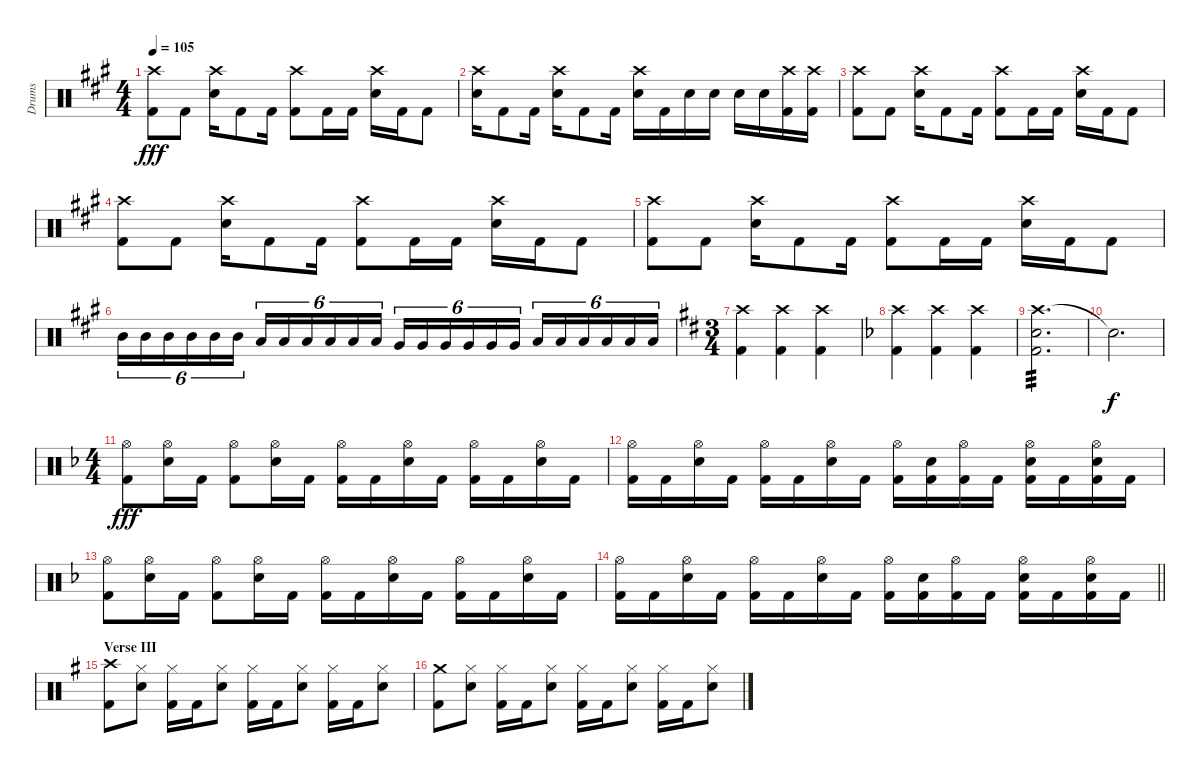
\track ("Drums" "Drums") {instrument percussion}
\staff {score}
\articulation defaults
\ts (4 4)
\tempo 105
\clef neutral
\ks f#minor
("Crash high (hit)" "Kick (hit) 2").8{dy fff} "Kick (hit) 2".8 ("Crash high (hit)" "Snare (hit) 2").16 "Kick (hit) 2".8 "Kick (hit) 2".16 ("Crash high (hit)" "Kick (hit) 2").8 "Kick (hit) 2".16 "Kick (hit) 2".16 ("Crash high (hit)" "Snare (hit) 2").16 "Kick (hit) 2".16 "Kick (hit) 2".8 |
("Crash high (hit)" "Snare (hit) 2").16 "Kick (hit) 2".8 "Kick (hit) 2".16 ("Crash high (hit)" "Snare (hit) 2").16 "Kick (hit) 2".8 "Kick (hit) 2".16 ("Crash high (hit)" "Snare (hit) 2").16 "Kick (hit) 2".16 "Snare (hit) 2".16 "Snare (hit) 2".16 "Snare (hit) 2".16 "Snare (hit) 2".16 ("Crash high (hit)" "Kick (hit) 2").16 ("Crash high (hit)" "Kick (hit) 2").16 |
("Crash high (hit)" "Kick (hit) 2").8 "Kick (hit) 2".8 ("Crash high (hit)" "Snare (hit) 2").16 "Kick (hit) 2".8 "Kick (hit) 2".16 ("Crash high (hit)" "Kick (hit) 2").8 "Kick (hit) 2".16 "Kick (hit) 2".16 ("Crash high (hit)" "Snare (hit) 2").16 "Kick (hit) 2".16 "Kick (hit) 2".8 |
("Crash high (hit)" "Kick (hit) 2").8 "Kick (hit) 2".8 ("Crash high (hit)" "Snare (hit) 2").16 "Kick (hit) 2".8 "Kick (hit) 2".16 ("Crash high (hit)" "Kick (hit) 2").8 "Kick (hit) 2".16 "Kick (hit) 2".16 ("Crash high (hit)" "Snare (hit) 2").16 "Kick (hit) 2".16 "Kick (hit) 2".8 |
("Crash high (hit)" "Kick (hit) 2").8 "Kick (hit) 2".8 ("Crash high (hit)" "Snare (hit) 2").16 "Kick (hit) 2".8 "Kick (hit) 2".16 ("Crash high (hit)" "Kick (hit) 2").8 "Kick (hit) 2".16 "Kick (hit) 2".16 ("Crash high (hit)" "Snare (hit) 2").16 "Kick (hit) 2".16 "Kick (hit) 2".8 |
"Mid Tom (hit)".16{tu (6 4)} "Mid Tom (hit)".16{tu (6 4)} "Mid Tom (hit)".16{tu (6 4)} "Mid Tom (hit)".16{tu (6 4)} "Mid Tom (hit)".16{tu (6 4)} "Mid Tom (hit)".16{tu (6 4)} "Low Tom (hit)".16{tu (6 4)} "Low Tom (hit)".16{tu (6 4)} "Low Tom (hit)".16{tu (6 4)} "Low Tom (hit)".16{tu (6 4)} "Low Tom (hit)".16{tu (6 4)} "Low Tom (hit)".16{tu (6 4)} "Very Low Tom (hit)".16{tu (6 4)} "Very Low Tom (hit)".16{tu (6 4)} "Very Low Tom (hit)".16{tu (6 4)} "Very Low Tom (hit)".16{tu (6 4)} "Very Low Tom (hit)".16{tu (6 4)} "Very Low Tom (hit)".16{tu (6 4)} "Low Floor Tom (hit)".16{tu (6 4)} "Low Floor Tom (hit)".16{tu (6 4)} "Low Floor Tom (hit)".16{tu (6 4)} "Low Floor Tom (hit)".16{tu (6 4)} "Low Floor Tom (hit)".16{tu (6 4)} "Low Floor Tom (hit)".16{tu (6 4)} |
\ts (3 4)
\ks d
("Crash high (hit)" "Kick (hit) 2").4 ("Crash high (hit)" "Kick (hit) 2").4 ("Crash high (hit)" "Kick (hit) 2").4 |
\ks dminor
("Crash high (hit)" "Kick (hit) 2").4 ("Crash high (hit)" "Kick (hit) 2").4 ("Crash high (hit)" "Kick (hit) 2").4 |
("Crash high (hit)" "Snare (hit) 2" "Kick (hit) 2").2{d tp 3} |
"Snare (hit)"{t}.2{d dy f} |
\ts (4 4)
("Hi-Hat (open)" "Kick (hit) 2").8{dy fff} ("Hi-Hat (open)" "Snare (hit) 2").16 "Kick (hit) 2".16 ("Hi-Hat (open)" "Kick (hit) 2").8 ("Hi-Hat (open)" "Snare (hit) 2").16 "Kick (hit) 2".16 ("Hi-Hat (open)" "Kick (hit) 2").16 "Kick (hit) 2".16 ("Hi-Hat (open)" "Snare (hit) 2").16 "Kick (hit) 2".16 ("Hi-Hat (open)" "Kick (hit) 2").16 "Kick (hit) 2".16 ("Hi-Hat (open)" "Snare (hit) 2").16 "Kick (hit) 2".16 |
("Hi-Hat (open)" "Kick (hit) 2").16 "Kick (hit) 2".16 ("Hi-Hat (open)" "Snare (hit) 2").16 "Kick (hit) 2".16 ("Hi-Hat (open)" "Kick (hit) 2").16 "Kick (hit) 2".16 ("Hi-Hat (open)" "Snare (hit) 2").16 "Kick (hit) 2".16 ("Hi-Hat (open)" "Kick (hit) 2").16 ("Snare (hit) 2" "Kick (hit) 2").16 ("Hi-Hat (open)" "Kick (hit) 2").16 "Kick (hit) 2".16 ("Hi-Hat (open)" "Snare (hit) 2" "Kick (hit) 2").16 "Kick (hit) 2".16 ("Hi-Hat (open)" "Snare (hit) 2" "Kick (hit) 2").16 "Kick (hit) 2".16 |
("Hi-Hat (open)" "Kick (hit) 2").8 ("Hi-Hat (open)" "Snare (hit) 2").16 "Kick (hit) 2".16 ("Hi-Hat (open)" "Kick (hit) 2").8 ("Hi-Hat (open)" "Snare (hit) 2").16 "Kick (hit) 2".16 ("Hi-Hat (open)" "Kick (hit) 2").16 "Kick (hit) 2".16 ("Hi-Hat (open)" "Snare (hit) 2").16 "Kick (hit) 2".16 ("Hi-Hat (open)" "Kick (hit) 2").16 "Kick (hit) 2".16 ("Hi-Hat (open)" "Snare (hit) 2").16 "Kick (hit) 2".16 |
\barLineRight lightlight
("Hi-Hat (open)" "Kick (hit) 2").16 "Kick (hit) 2".16 ("Hi-Hat (open)" "Snare (hit) 2").16 "Kick (hit) 2".16 ("Hi-Hat (open)" "Kick (hit) 2").16 "Kick (hit) 2".16 ("Hi-Hat (open)" "Snare (hit) 2").16 "Kick (hit) 2".16 ("Hi-Hat (open)" "Kick (hit) 2").16 ("Snare (hit) 2" "Kick (hit) 2").16 ("Hi-Hat (open)" "Kick (hit) 2").16 "Kick (hit) 2".16 ("Hi-Hat (open)" "Snare (hit) 2" "Kick (hit) 2").16 "Kick (hit) 2".16 ("Hi-Hat (open)" "Snare (hit) 2" "Kick (hit) 2").16 "Kick (hit) 2".16 |
\section ("" "Verse III")
\ks eminor
("Crash high (hit)" "Kick (hit) 2").8 ("Hi-Hat (closed)" "Snare (hit) 2").8 ("Hi-Hat (closed)" "Kick (hit) 2").16 "Kick (hit) 2".16 ("Hi-Hat (closed)" "Snare (hit) 2").8 ("Hi-Hat (closed)" "Kick (hit) 2").16 "Kick (hit) 2".16 ("Hi-Hat (closed)" "Snare (hit) 2").8 ("Hi-Hat (closed)" "Kick (hit) 2").16 "Kick (hit) 2".16 ("Hi-Hat (closed)" "Snare (hit) 2").8 |
("Crash medium (hit)" "Kick (hit) 2").8 ("Hi-Hat (closed)" "Snare (hit) 2").8 ("Hi-Hat (closed)" "Kick (hit) 2").16 "Kick (hit) 2".16 ("Hi-Hat (closed)" "Snare (hit) 2").8 ("Hi-Hat (closed)" "Kick (hit) 2").16 "Kick (hit) 2".16 ("Hi-Hat (closed)" "Snare (hit) 2").8 ("Hi-Hat (closed)" "Kick (hit) 2").16 "Kick (hit) 2".16 ("Hi-Hat (closed)" "Snare (hit) 2").8
